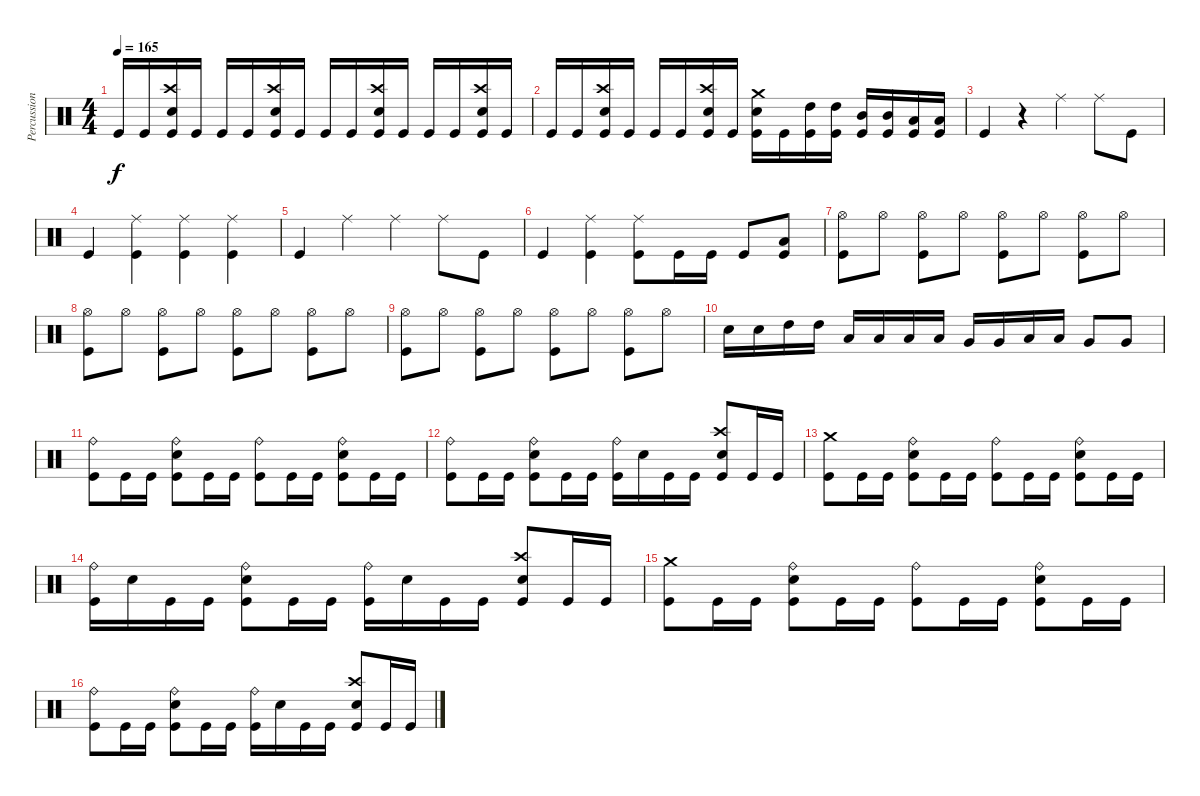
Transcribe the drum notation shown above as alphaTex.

\track ("Percussion" "Percussion") {instrument percussion}
\staff {score}
\articulation defaults
\ts (4 4)
\tempo 165
\clef neutral
\ks c "Kick (hit)".16{dy f} "Kick (hit)".16
("Crash high (hit)" "Snare (hit) 2" "Kick (hit)").16 "Kick (hit)".16 "Kick (hit)".16 "Kick (hit)".16 ("Crash high (hit)" "Snare (hit) 2" "Kick (hit)").16 "Kick (hit)".16 "Kick (hit)".16 "Kick (hit)".16 ("Crash high (hit)" "Snare (hit) 2" "Kick (hit)").16 "Kick (hit)".16 "Kick (hit)".16 "Kick (hit)".16 ("Crash high (hit)" "Snare (hit) 2" "Kick (hit)").16 "Kick (hit)".16 |
"Kick (hit)".16 "Kick (hit)".16 ("Crash high (hit)" "Snare (hit) 2" "Kick (hit)").16 "Kick (hit)".16 "Kick (hit)".16 "Kick (hit)".16 ("Crash high (hit)" "Snare (hit) 2" "Kick (hit)").16 "Kick (hit)".16 ("Crash medium (hit)" "Snare (hit) 2" "Kick (hit)").16 "Kick (hit)".16 ("High Tom (hit)" "Kick (hit)").16 ("High Tom (hit)" "Kick (hit)").16 ("Mid Tom (hit)" "Kick (hit)").16 ("Mid Tom (hit)" "Kick (hit)").16 ("Low Tom (hit)" "Kick (hit)").16 ("Low Tom (hit)" "Kick (hit)").16 |
"Kick (hit)".4 r.4 "Ride (middle)".4 "Ride (middle)".8 "Kick (hit)".8 |
"Kick (hit)".4 ("Ride (middle)" "Kick (hit)").4 ("Ride (middle)" "Kick (hit)").4 ("Ride (middle)" "Kick (hit)").4 |
"Kick (hit)".4 "Ride (middle)".4 "Ride (middle)".4 "Ride (middle)".8 "Kick (hit)".8 |
"Kick (hit)".4 ("Ride (middle)" "Kick (hit)").4 ("Ride (middle)" "Kick (hit)").8 "Kick (hit)".16 "Kick (hit)".16 "Kick (hit)".8 ("Low Floor Tom (hit)" "Kick (hit)").8 |
("Hi-Hat (open)" "Kick (hit)").8 "Hi-Hat (open)".8 ("Hi-Hat (open)" "Kick (hit)").8 "Hi-Hat (open)".8 ("Hi-Hat (open)" "Kick (hit)").8 "Hi-Hat (open)".8 ("Hi-Hat (open)" "Kick (hit)").8 "Hi-Hat (open)".8 |
("Hi-Hat (open)" "Kick (hit)").8 "Hi-Hat (open)".8 ("Hi-Hat (open)" "Kick (hit)").8 "Hi-Hat (open)".8 ("Hi-Hat (open)" "Kick (hit)").8 "Hi-Hat (open)".8 ("Hi-Hat (open)" "Kick (hit)").8 "Hi-Hat (open)".8 |
("Hi-Hat (open)" "Kick (hit)").8 "Hi-Hat (open)".8 ("Hi-Hat (open)" "Kick (hit)").8 "Hi-Hat (open)".8 ("Hi-Hat (open)" "Kick (hit)").8 "Hi-Hat (open)".8 ("Hi-Hat (open)" "Kick (hit)").8 "Hi-Hat (open)".8 |
"Snare (hit) 2".16 "Snare (hit) 2".16 "High Tom (hit)".16 "High Tom (hit)".16 "Low Tom (hit)".16 "Low Tom (hit)".16 "Low Tom (hit)".16 "Low Tom (hit)".16 "Very Low Tom (hit)".16 "Very Low Tom (hit)".16 "Low Floor Tom (hit)".16 "Low Floor Tom (hit)".16 "Very Low Tom (hit)".8 "Very Low Tom (hit)".8 |
("Ride (bell)" "Kick (hit)").8 "Kick (hit)".16 "Kick (hit)".16 ("Ride (bell)" "Snare (hit) 2" "Kick (hit)").8 "Kick (hit)".16 "Kick (hit)".16 ("Ride (bell)" "Kick (hit)").8 "Kick (hit)".16 "Kick (hit)".16 ("Ride (bell)" "Snare (hit) 2" "Kick (hit)").8 "Kick (hit)".16 "Kick (hit)".16 |
("Ride (bell)" "Kick (hit)").8 "Kick (hit)".16 "Kick (hit)".16 ("Ride (bell)" "Snare (hit) 2" "Kick (hit)").8 "Kick (hit)".16 "Kick (hit)".16 ("Ride (bell)" "Kick (hit)").16 "Snare (hit) 2".16 "Kick (hit)".16 "Kick (hit)".16 ("Crash high (hit)" "Snare (hit) 2" "Kick (hit)").8 "Kick (hit)".16 "Kick (hit)".16 |
("Crash medium (hit)" "Kick (hit)").8 "Kick (hit)".16 "Kick (hit)".16 ("Ride (bell)" "Snare (hit) 2" "Kick (hit)").8 "Kick (hit)".16 "Kick (hit)".16 ("Ride (bell)" "Kick (hit)").8 "Kick (hit)".16 "Kick (hit)".16 ("Ride (bell)" "Snare (hit) 2" "Kick (hit)").8 "Kick (hit)".16 "Kick (hit)".16 |
("Ride (bell)" "Kick (hit)").16 "Snare (hit) 2".16 "Kick (hit)".16 "Kick (hit)".16 ("Ride (bell)" "Snare (hit) 2" "Kick (hit)").8 "Kick (hit)".16 "Kick (hit)".16 ("Ride (bell)" "Kick (hit)").16 "Snare (hit) 2".16 "Kick (hit)".16 "Kick (hit)".16 ("Crash high (hit)" "Snare (hit) 2" "Kick (hit)").8 "Kick (hit)".16 "Kick (hit)".16 |
("Crash medium (hit)" "Kick (hit)").8 "Kick (hit)".16 "Kick (hit)".16 ("Ride (bell)" "Snare (hit) 2" "Kick (hit)").8 "Kick (hit)".16 "Kick (hit)".16 ("Ride (bell)" "Kick (hit)").8 "Kick (hit)".16 "Kick (hit)".16 ("Ride (bell)" "Snare (hit) 2" "Kick (hit)").8 "Kick (hit)".16 "Kick (hit)".16 |
("Ride (bell)" "Kick (hit)").8 "Kick (hit)".16 "Kick (hit)".16 ("Ride (bell)" "Snare (hit) 2" "Kick (hit)").8 "Kick (hit)".16 "Kick (hit)".16 ("Ride (bell)" "Kick (hit)").16 "Snare (hit) 2".16 "Kick (hit)".16 "Kick (hit)".16 ("Crash high (hit)" "Snare (hit) 2" "Kick (hit)").8 "Kick (hit)".16 "Kick (hit)".16
